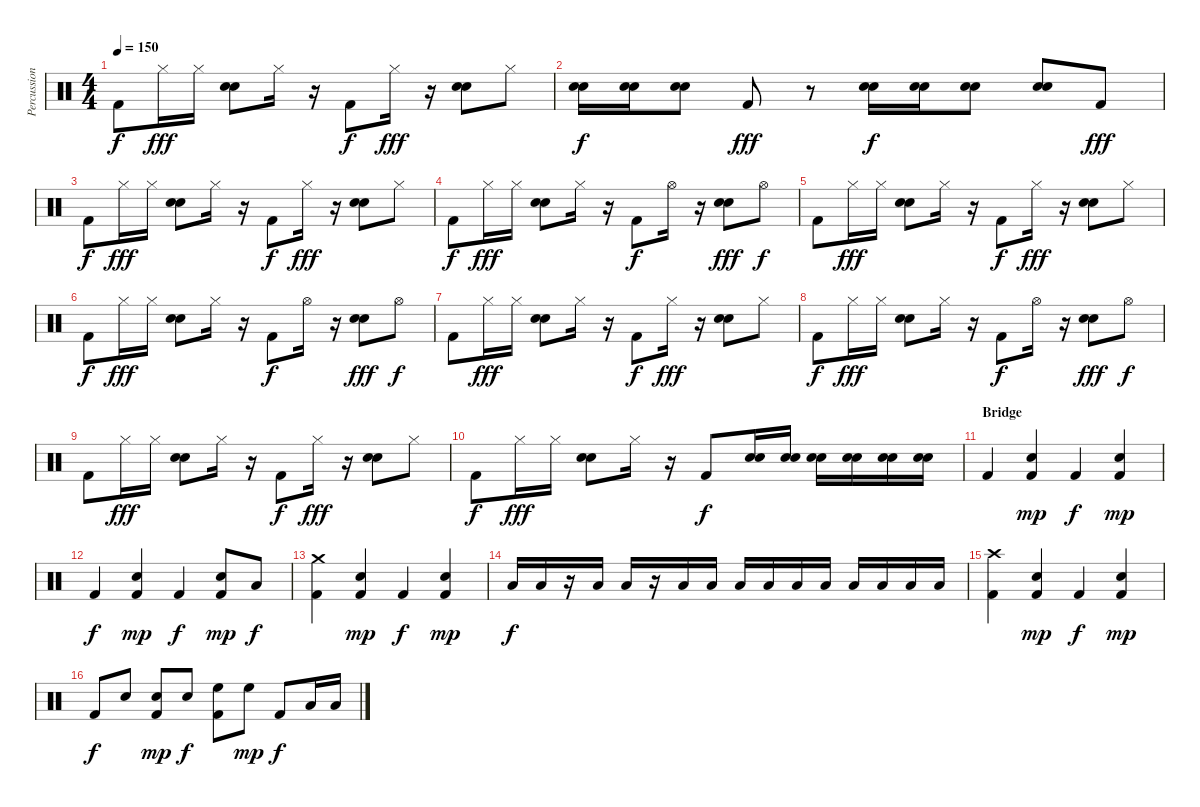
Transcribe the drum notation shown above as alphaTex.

\track ("Percussions" "Percussion") {instrument percussion}
\staff {score}
\articulation defaults
\ts (4 4)
\tempo 150
\clef neutral
\ks c "Kick (hit) 2".8{dy f} "Hi-Hat (closed)".16{dy fff} "Hi-Hat (closed)".16
("Electric Snare (hit)" "Snare (hit) 2").8 "Hi-Hat (closed)".16 r.16 "Kick (hit) 2".8{dy f} "Hi-Hat (closed)".16{dy fff} r.16 ("Electric Snare (hit)" "Snare (hit) 2").8 "Hi-Hat (closed)".8 |
("Snare (hit) 2" "Electric Snare (hit)").16{dy f} ("Snare (hit) 2" "Electric Snare (hit)").16 ("Snare (hit) 2" "Electric Snare (hit)").8 "Kick (hit) 2".8{dy fff} r.8 ("Snare (hit) 2" "Electric Snare (hit)").16{dy f} ("Snare (hit) 2" "Electric Snare (hit)").16 ("Snare (hit) 2" "Electric Snare (hit)").8 ("Snare (hit) 2" "Electric Snare (hit)").8 "Kick (hit) 2".8{dy fff} |
"Kick (hit) 2".8{dy f} "Hi-Hat (closed)".16{dy fff} "Hi-Hat (closed)".16 ("Electric Snare (hit)" "Snare (hit) 2").8 "Hi-Hat (closed)".16 r.16 "Kick (hit) 2".8{dy f} "Hi-Hat (closed)".16{dy fff} r.16 ("Electric Snare (hit)" "Snare (hit) 2").8 "Hi-Hat (closed)".8 |
"Kick (hit) 2".8{dy f} "Hi-Hat (closed)".16{dy fff} "Hi-Hat (closed)".16 ("Electric Snare (hit)" "Snare (hit) 2").8 "Hi-Hat (closed)".16 r.16 "Kick (hit) 2".8{dy f} "Hi-Hat (open)".16 r.16 ("Electric Snare (hit)" "Snare (hit) 2").8{dy fff} "Hi-Hat (open)".8{dy f} |
"Kick (hit) 2".8 "Hi-Hat (closed)".16{dy fff} "Hi-Hat (closed)".16 ("Electric Snare (hit)" "Snare (hit) 2").8 "Hi-Hat (closed)".16 r.16 "Kick (hit) 2".8{dy f} "Hi-Hat (closed)".16{dy fff} r.16 ("Electric Snare (hit)" "Snare (hit) 2").8 "Hi-Hat (closed)".8 |
"Kick (hit) 2".8{dy f} "Hi-Hat (closed)".16{dy fff} "Hi-Hat (closed)".16 ("Electric Snare (hit)" "Snare (hit) 2").8 "Hi-Hat (closed)".16 r.16 "Kick (hit) 2".8{dy f} "Hi-Hat (open)".16 r.16 ("Electric Snare (hit)" "Snare (hit) 2").8{dy fff} "Hi-Hat (open)".8{dy f} |
"Kick (hit) 2".8 "Hi-Hat (closed)".16{dy fff} "Hi-Hat (closed)".16 ("Electric Snare (hit)" "Snare (hit) 2").8 "Hi-Hat (closed)".16 r.16 "Kick (hit) 2".8{dy f} "Hi-Hat (closed)".16{dy fff} r.16 ("Electric Snare (hit)" "Snare (hit) 2").8 "Hi-Hat (closed)".8 |
"Kick (hit) 2".8{dy f} "Hi-Hat (closed)".16{dy fff} "Hi-Hat (closed)".16 ("Electric Snare (hit)" "Snare (hit) 2").8 "Hi-Hat (closed)".16 r.16 "Kick (hit) 2".8{dy f} "Hi-Hat (open)".16 r.16 ("Electric Snare (hit)" "Snare (hit) 2").8{dy fff} "Hi-Hat (open)".8{dy f} |
"Kick (hit) 2".8 "Hi-Hat (closed)".16{dy fff} "Hi-Hat (closed)".16 ("Electric Snare (hit)" "Snare (hit) 2").8 "Hi-Hat (closed)".16 r.16 "Kick (hit) 2".8{dy f} "Hi-Hat (closed)".16{dy fff} r.16 ("Electric Snare (hit)" "Snare (hit) 2").8 "Hi-Hat (closed)".8 |
"Kick (hit) 2".8{dy f} "Hi-Hat (closed)".16{dy fff} "Hi-Hat (closed)".16 ("Electric Snare (hit)" "Snare (hit) 2").8 "Hi-Hat (closed)".16 r.16 "Kick (hit) 2".8{dy f} ("Snare (hit) 2" "Electric Snare (hit)").16 ("Snare (hit) 2" "Electric Snare (hit)").16 ("Snare (hit) 2" "Electric Snare (hit)").16 ("Snare (hit) 2" "Electric Snare (hit)").16 ("Snare (hit) 2" "Electric Snare (hit)").16 ("Snare (hit) 2" "Electric Snare (hit)").16 |
\section ("" "Bridge")
"Kick (hit) 2".4 ("Kick (hit) 2" "Hand Clap (hit)").4{dy mp} "Kick (hit) 2".4{dy f} ("Kick (hit) 2" "Hand Clap (hit)").4{dy mp} |
"Kick (hit) 2".4{dy f} ("Kick (hit) 2" "Hand Clap (hit)").4{dy mp} "Kick (hit) 2".4{dy f} ("Kick (hit) 2" "Hand Clap (hit)").8{dy mp} "Low Floor Tom (hit)".8{dy f} |
("Kick (hit) 2" "Crash medium (hit)").4 ("Kick (hit) 2" "Hand Clap (hit)").4{dy mp} "Kick (hit) 2".4{dy f} ("Kick (hit) 2" "Hand Clap (hit)").4{dy mp} |
"Low Tom (hit)".16{dy f} "Low Tom (hit)".16 r.16 "Low Tom (hit)".16 "Low Tom (hit)".16 r.16 "Low Tom (hit)".16 "Low Tom (hit)".16 "Low Tom (hit)".16 "Low Floor Tom (hit)".16 "Low Floor Tom (hit)".16 "Low Floor Tom (hit)".16 "Low Floor Tom (hit)".16 "Low Floor Tom (hit)".16 "Low Floor Tom (hit)".16 "Low Floor Tom (hit)".16 |
("Kick (hit) 2" "Crash high (hit)").4 ("Kick (hit) 2" "Hand Clap (hit)").4{dy mp} "Kick (hit) 2".4{dy f} ("Kick (hit) 2" "Hand Clap (hit)").4{dy mp} |
"Kick (hit) 2".8{dy f} "Snare (hit) 2".8 ("Kick (hit) 2" "Hand Clap (hit)").8{dy mp} "Snare (hit) 2".8{dy f} ("Kick (hit) 2" "High Floor Tom (hit)").8 "High Floor Tom (hit)".8{dy mp} "Kick (hit) 2".8{dy f} "Low Tom (hit)".16 "Low Tom (hit)".16
